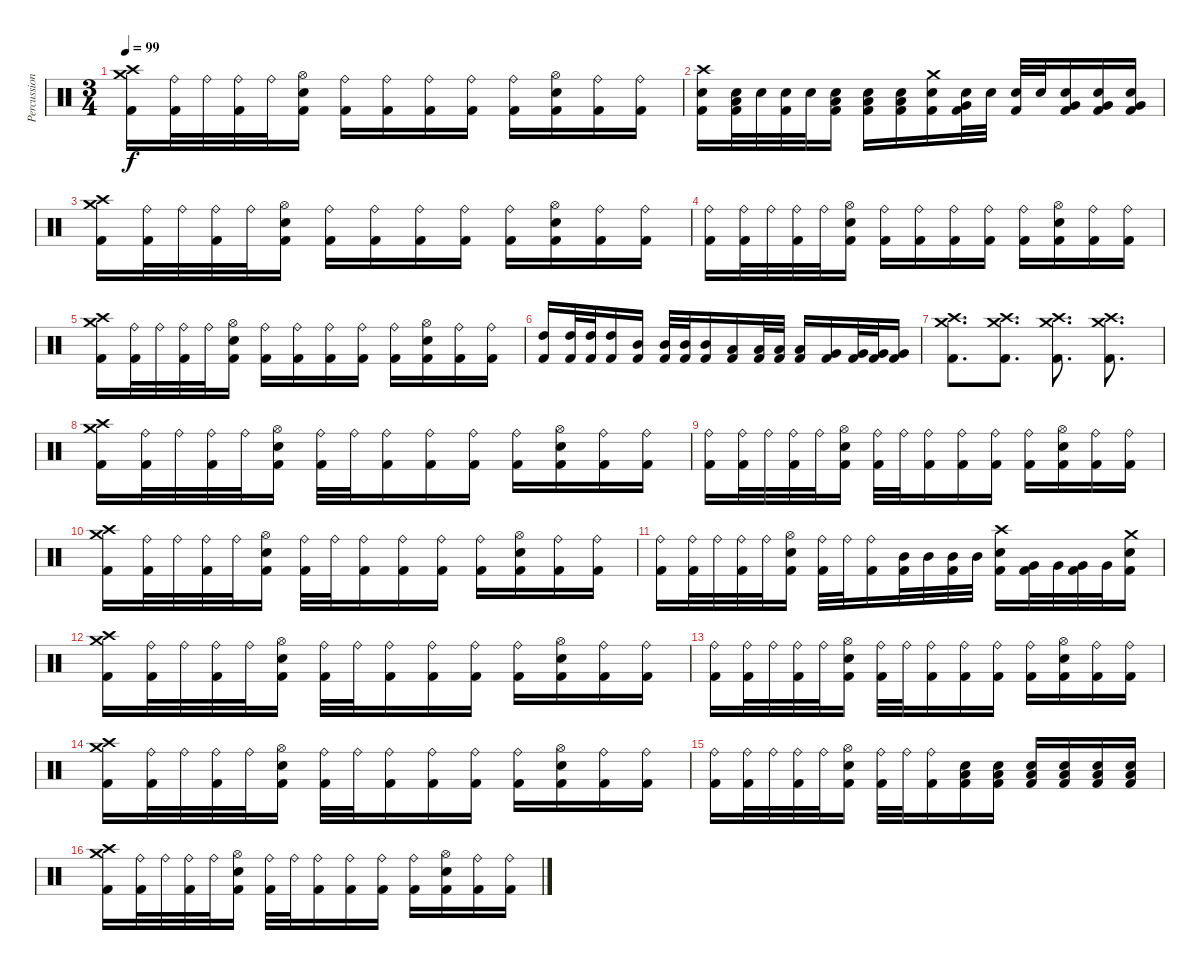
\track ("Percussion" "Percussion") {instrument percussion}
\staff {score}
\articulation defaults
\ts (3 4)
\tempo 99
\clef neutral
\ks c
("Crash medium (hit)" "Crash high (hit)" "Kick (hit) 2").16{dy f} ("Ride (bell)" "Kick (hit) 2").32 "Ride (bell)".32 ("Ride (bell)" "Kick (hit) 2").32 "Ride (bell)".32 ("Hi-Hat (open)" "Electric Snare (hit)" "Kick (hit) 2").16 ("Ride (bell)" "Kick (hit) 2").16 ("Ride (bell)" "Kick (hit) 2").16 ("Ride (bell)" "Kick (hit) 2").16 ("Ride (bell)" "Kick (hit) 2").16 ("Ride (bell)" "Kick (hit) 2").16 ("Hi-Hat (open)" "Electric Snare (hit)" "Kick (hit) 2").16 ("Ride (bell)" "Kick (hit) 2").16 ("Ride (bell)" "Kick (hit) 2").16 |
("Crash high (hit)" "Electric Snare (hit)" "Kick (hit) 2").16 ("Electric Snare (hit)" "Low Floor Tom (hit)" "Kick (hit) 2").32 "Electric Snare (hit)".32 ("Electric Snare (hit)" "Kick (hit) 2").32 "Electric Snare (hit)".32 ("Electric Snare (hit)" "Low Floor Tom (hit)" "Kick (hit) 2").16 ("Electric Snare (hit)" "Low Floor Tom (hit)" "Kick (hit) 2").16 ("Electric Snare (hit)" "Low Floor Tom (hit)" "Kick (hit) 2").16 ("Crash medium (hit)" "Electric Snare (hit)" "Kick (hit) 2").16 ("Electric Snare (hit)" "Very Low Tom (hit)" "Kick (hit) 2").32 "Electric Snare (hit)".32 ("Electric Snare (hit)" "Kick (hit) 2").32 "Electric Snare (hit)".32 ("Electric Snare (hit)" "Very Low Tom (hit)" "Kick (hit) 2").16 ("Electric Snare (hit)" "Very Low Tom (hit)" "Kick (hit) 2").16 ("Electric Snare (hit)" "Very Low Tom (hit)" "Kick (hit) 2").16 |
("Crash medium (hit)" "Crash high (hit)" "Kick (hit) 2").16 ("Ride (bell)" "Kick (hit) 2").32 "Ride (bell)".32 ("Ride (bell)" "Kick (hit) 2").32 "Ride (bell)".32 ("Hi-Hat (open)" "Electric Snare (hit)" "Kick (hit) 2").16 ("Ride (bell)" "Kick (hit) 2").16 ("Ride (bell)" "Kick (hit) 2").16 ("Ride (bell)" "Kick (hit) 2").16 ("Ride (bell)" "Kick (hit) 2").16 ("Ride (bell)" "Kick (hit) 2").16 ("Hi-Hat (open)" "Electric Snare (hit)" "Kick (hit) 2").16 ("Ride (bell)" "Kick (hit) 2").16 ("Ride (bell)" "Kick (hit) 2").16 |
("Ride (bell)" "Kick (hit) 2").16 ("Ride (bell)" "Kick (hit) 2").32 "Ride (bell)".32 ("Ride (bell)" "Kick (hit) 2").32 "Ride (bell)".32 ("Hi-Hat (open)" "Electric Snare (hit)" "Kick (hit) 2").16 ("Ride (bell)" "Kick (hit) 2").16 ("Ride (bell)" "Kick (hit) 2").16 ("Ride (bell)" "Kick (hit) 2").16 ("Ride (bell)" "Kick (hit) 2").16 ("Ride (bell)" "Kick (hit) 2").16 ("Hi-Hat (open)" "Electric Snare (hit)" "Kick (hit) 2").16 ("Ride (bell)" "Kick (hit) 2").16 ("Ride (bell)" "Kick (hit) 2").16 |
("Crash medium (hit)" "Crash high (hit)" "Kick (hit) 2").16 ("Ride (bell)" "Kick (hit) 2").32 "Ride (bell)".32 ("Ride (bell)" "Kick (hit) 2").32 "Ride (bell)".32 ("Hi-Hat (open)" "Electric Snare (hit)" "Kick (hit) 2").16 ("Ride (bell)" "Kick (hit) 2").16 ("Ride (bell)" "Kick (hit) 2").16 ("Ride (bell)" "Kick (hit) 2").16 ("Ride (bell)" "Kick (hit) 2").16 ("Ride (bell)" "Kick (hit) 2").16 ("Hi-Hat (open)" "Electric Snare (hit)" "Kick (hit) 2").16 ("Ride (bell)" "Kick (hit) 2").16 ("Ride (bell)" "Kick (hit) 2").16 |
("High Tom (hit)" "Kick (hit) 2").16 ("High Tom (hit)" "Kick (hit) 2").32 ("High Tom (hit)" "Kick (hit) 2").32 ("High Tom (hit)" "Kick (hit) 2").16 ("Mid Tom (hit)" "Kick (hit) 2").16 ("Mid Tom (hit)" "Kick (hit) 2").32 ("Mid Tom (hit)" "Kick (hit) 2").32 ("Mid Tom (hit)" "Kick (hit) 2").16 ("Low Tom (hit)" "Kick (hit) 2").16 ("Low Tom (hit)" "Kick (hit) 2").32 ("Low Tom (hit)" "Kick (hit) 2").32 ("Low Tom (hit)" "Kick (hit) 2").16 ("Very Low Tom (hit)" "Kick (hit) 2").16 ("Very Low Tom (hit)" "Kick (hit) 2").32 ("Very Low Tom (hit)" "Kick (hit) 2").32 ("Very Low Tom (hit)" "Kick (hit) 2").16 |
("Crash high (hit)" "Crash medium (hit)" "Kick (hit) 2").8{d} ("Crash high (hit)" "Crash medium (hit)" "Kick (hit) 2").8{d} ("Crash high (hit)" "Crash medium (hit)" "Kick (hit) 2").8{d} ("Crash high (hit)" "Crash medium (hit)" "Kick (hit) 2").8{d} |
("Crash medium (hit)" "Crash high (hit)" "Kick (hit) 2").16 ("Ride (bell)" "Kick (hit) 2").32 "Ride (bell)".32 ("Ride (bell)" "Kick (hit) 2").32 "Ride (bell)".32 ("Hi-Hat (open)" "Electric Snare (hit)" "Kick (hit) 2").16 ("Ride (bell)" "Kick (hit) 2").32 "Ride (bell)".32 ("Ride (bell)" "Kick (hit) 2").16 ("Ride (bell)" "Kick (hit) 2").16 ("Ride (bell)" "Kick (hit) 2").16 ("Ride (bell)" "Kick (hit) 2").16 ("Hi-Hat (open)" "Electric Snare (hit)" "Kick (hit) 2").16 ("Ride (bell)" "Kick (hit) 2").16 ("Ride (bell)" "Kick (hit) 2").16 |
("Ride (bell)" "Kick (hit) 2").16 ("Ride (bell)" "Kick (hit) 2").32 "Ride (bell)".32 ("Ride (bell)" "Kick (hit) 2").32 "Ride (bell)".32 ("Hi-Hat (open)" "Electric Snare (hit)" "Kick (hit) 2").16 ("Ride (bell)" "Kick (hit) 2").32 "Ride (bell)".32 ("Ride (bell)" "Kick (hit) 2").16 ("Ride (bell)" "Kick (hit) 2").16 ("Ride (bell)" "Kick (hit) 2").16 ("Ride (bell)" "Kick (hit) 2").16 ("Hi-Hat (open)" "Electric Snare (hit)" "Kick (hit) 2").16 ("Ride (bell)" "Kick (hit) 2").16 ("Ride (bell)" "Kick (hit) 2").16 |
("Crash medium (hit)" "Crash high (hit)" "Kick (hit) 2").16 ("Ride (bell)" "Kick (hit) 2").32 "Ride (bell)".32 ("Ride (bell)" "Kick (hit) 2").32 "Ride (bell)".32 ("Hi-Hat (open)" "Electric Snare (hit)" "Kick (hit) 2").16 ("Ride (bell)" "Kick (hit) 2").32 "Ride (bell)".32 ("Ride (bell)" "Kick (hit) 2").16 ("Ride (bell)" "Kick (hit) 2").16 ("Ride (bell)" "Kick (hit) 2").16 ("Ride (bell)" "Kick (hit) 2").16 ("Hi-Hat (open)" "Electric Snare (hit)" "Kick (hit) 2").16 ("Ride (bell)" "Kick (hit) 2").16 ("Ride (bell)" "Kick (hit) 2").16 |
("Ride (bell)" "Kick (hit) 2").16 ("Ride (bell)" "Kick (hit) 2").32 "Ride (bell)".32 ("Ride (bell)" "Kick (hit) 2").32 "Ride (bell)".32 ("Hi-Hat (open)" "Electric Snare (hit)" "Kick (hit) 2").16 ("Ride (bell)" "Kick (hit) 2").32 "Ride (bell)".32 ("Ride (bell)" "Kick (hit) 2").16 ("Mid Tom (hit)" "Kick (hit) 2").32 "Mid Tom (hit)".32 ("Mid Tom (hit)" "Kick (hit) 2").32 "Mid Tom (hit)".32 ("Crash high (hit)" "Electric Snare (hit)" "Kick (hit) 2").16 ("Very Low Tom (hit)" "Kick (hit) 2").32 "Very Low Tom (hit)".32 ("Very Low Tom (hit)" "Kick (hit) 2").32 "Very Low Tom (hit)".32 ("Crash medium (hit)" "Electric Snare (hit)" "Kick (hit) 2").16 |
("Crash medium (hit)" "Crash high (hit)" "Kick (hit) 2").16 ("Ride (bell)" "Kick (hit) 2").32 "Ride (bell)".32 ("Ride (bell)" "Kick (hit) 2").32 "Ride (bell)".32 ("Hi-Hat (open)" "Electric Snare (hit)" "Kick (hit) 2").16 ("Ride (bell)" "Kick (hit) 2").32 "Ride (bell)".32 ("Ride (bell)" "Kick (hit) 2").16 ("Ride (bell)" "Kick (hit) 2").16 ("Ride (bell)" "Kick (hit) 2").16 ("Ride (bell)" "Kick (hit) 2").16 ("Hi-Hat (open)" "Electric Snare (hit)" "Kick (hit) 2").16 ("Ride (bell)" "Kick (hit) 2").16 ("Ride (bell)" "Kick (hit) 2").16 |
("Ride (bell)" "Kick (hit) 2").16 ("Ride (bell)" "Kick (hit) 2").32 "Ride (bell)".32 ("Ride (bell)" "Kick (hit) 2").32 "Ride (bell)".32 ("Hi-Hat (open)" "Electric Snare (hit)" "Kick (hit) 2").16 ("Ride (bell)" "Kick (hit) 2").32 "Ride (bell)".32 ("Ride (bell)" "Kick (hit) 2").16 ("Ride (bell)" "Kick (hit) 2").16 ("Ride (bell)" "Kick (hit) 2").16 ("Ride (bell)" "Kick (hit) 2").16 ("Hi-Hat (open)" "Electric Snare (hit)" "Kick (hit) 2").16 ("Ride (bell)" "Kick (hit) 2").16 ("Ride (bell)" "Kick (hit) 2").16 |
("Crash medium (hit)" "Crash high (hit)" "Kick (hit) 2").16 ("Ride (bell)" "Kick (hit) 2").32 "Ride (bell)".32 ("Ride (bell)" "Kick (hit) 2").32 "Ride (bell)".32 ("Hi-Hat (open)" "Electric Snare (hit)" "Kick (hit) 2").16 ("Ride (bell)" "Kick (hit) 2").32 "Ride (bell)".32 ("Ride (bell)" "Kick (hit) 2").16 ("Ride (bell)" "Kick (hit) 2").16 ("Ride (bell)" "Kick (hit) 2").16 ("Ride (bell)" "Kick (hit) 2").16 ("Hi-Hat (open)" "Electric Snare (hit)" "Kick (hit) 2").16 ("Ride (bell)" "Kick (hit) 2").16 ("Ride (bell)" "Kick (hit) 2").16 |
("Ride (bell)" "Kick (hit) 2").16 ("Ride (bell)" "Kick (hit) 2").32 "Ride (bell)".32 ("Ride (bell)" "Kick (hit) 2").32 "Ride (bell)".32 ("Hi-Hat (open)" "Electric Snare (hit)" "Kick (hit) 2").16 ("Ride (bell)" "Kick (hit) 2").32 "Ride (bell)".32 ("Ride (bell)" "Kick (hit) 2").16 ("Low Floor Tom (hit)" "Electric Snare (hit)" "Kick (hit) 2").16 ("Low Floor Tom (hit)" "Electric Snare (hit)" "Kick (hit) 2").16 ("Low Floor Tom (hit)" "Electric Snare (hit)" "Kick (hit) 2").16 ("Low Floor Tom (hit)" "Electric Snare (hit)" "Kick (hit) 2").16 ("Low Floor Tom (hit)" "Electric Snare (hit)" "Kick (hit) 2").16 ("Low Floor Tom (hit)" "Electric Snare (hit)" "Kick (hit) 2").16 |
("Crash medium (hit)" "Crash high (hit)" "Kick (hit) 2").16 ("Ride (bell)" "Kick (hit) 2").32 "Ride (bell)".32 ("Ride (bell)" "Kick (hit) 2").32 "Ride (bell)".32 ("Hi-Hat (open)" "Electric Snare (hit)" "Kick (hit) 2").16 ("Ride (bell)" "Kick (hit) 2").32 "Ride (bell)".32 ("Ride (bell)" "Kick (hit) 2").16 ("Ride (bell)" "Kick (hit) 2").16 ("Ride (bell)" "Kick (hit) 2").16 ("Ride (bell)" "Kick (hit) 2").16 ("Hi-Hat (open)" "Electric Snare (hit)" "Kick (hit) 2").16 ("Ride (bell)" "Kick (hit) 2").16 ("Ride (bell)" "Kick (hit) 2").16
